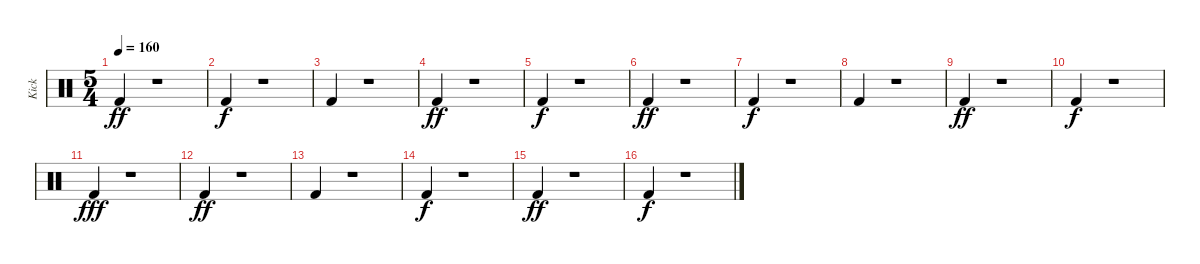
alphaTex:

\track ("Kick" "Kick") {instrument percussion}
\staff {score}
\articulation defaults
\ts (5 4)
\tempo 160
\clef neutral
\ks c "Kick (hit) 2".4{dy ff}
r.1 |
"Kick (hit) 2".4{dy f} r.1 |
"Kick (hit) 2".4 r.1 |
"Kick (hit) 2".4{dy ff} r.1 |
"Kick (hit) 2".4{dy f} r.1 |
"Kick (hit) 2".4{dy ff} r.1 |
"Kick (hit) 2".4{dy f} r.1 |
"Kick (hit) 2".4 r.1 |
"Kick (hit) 2".4{dy ff} r.1 |
"Kick (hit) 2".4{dy f} r.1 |
"Kick (hit) 2".4{dy fff} r.1 |
"Kick (hit) 2".4{dy ff} r.1 |
"Kick (hit) 2".4 r.1 |
"Kick (hit) 2".4{dy f} r.1 |
"Kick (hit) 2".4{dy ff} r.1 |
"Kick (hit) 2".4{dy f} r.1
